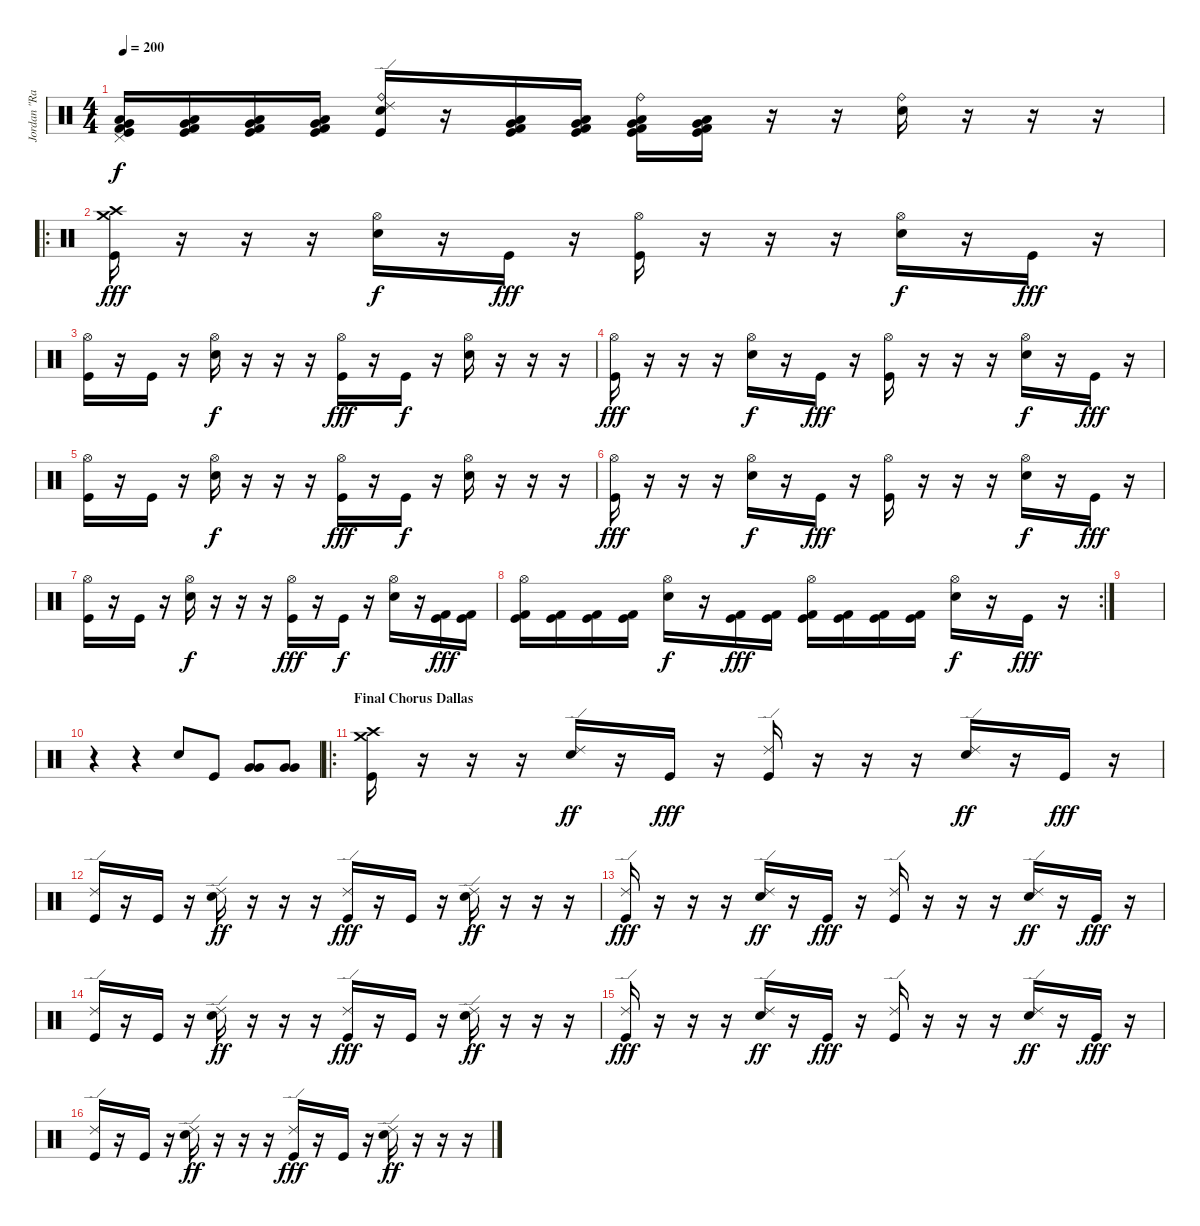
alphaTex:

\track ("Jordan \"Ratbeard\" Hastings" "Jordan \"Ra") {instrument percussion}
\staff {score}
\articulation defaults
\ts (4 4)
\tempo 200
\clef neutral
\ks c
("Pedal Hi-Hat (hit)" "Low Tom (hit)" "Kick (hit) 2" "Very Low Tom (hit)" "Kick (hit)").16{dy f} ("Low Tom (hit)" "Kick (hit) 2" "Very Low Tom (hit)" "Kick (hit)").16 ("Low Tom (hit)" "Kick (hit) 2" "Very Low Tom (hit)" "Kick (hit)").16 ("Low Tom (hit)" "Kick (hit) 2" "Very Low Tom (hit)" "Kick (hit)").16 ("Ride (edge) 2" "Ride (bell)" "Electric Snare (hit)" "Kick (hit)").16 r.16 ("Low Tom (hit)" "Kick (hit) 2" "Very Low Tom (hit)" "Kick (hit)").16 ("Low Tom (hit)" "Kick (hit) 2" "Very Low Tom (hit)" "Kick (hit)").16 ("Ride (bell)" "Low Tom (hit)" "Kick (hit) 2" "Very Low Tom (hit)" "Kick (hit)").16 ("Low Tom (hit)" "Kick (hit) 2" "Very Low Tom (hit)" "Kick (hit)").16 r.16 r.16 ("Ride (bell)" "Electric Snare (hit)").16 r.16 r.16 r.16 |
\ro
("Crash medium (hit)" "Crash high (hit)" "Kick (hit)").16{dy fff} r.16 r.16 r.16 ("Hi-Hat (open)" "Electric Snare (hit)").16{dy f} r.16 "Kick (hit)".16{dy fff} r.16 ("Hi-Hat (open)" "Kick (hit)").16 r.16 r.16 r.16 ("Hi-Hat (open)" "Electric Snare (hit)").16{dy f} r.16 "Kick (hit)".16{dy fff} r.16 |
("Hi-Hat (open)" "Kick (hit)").16 r.16 "Kick (hit)".16 r.16 ("Hi-Hat (open)" "Electric Snare (hit)").16{dy f} r.16 r.16 r.16 ("Hi-Hat (open)" "Kick (hit)").16{dy fff} r.16 "Kick (hit)".16{dy f} r.16 ("Hi-Hat (open)" "Electric Snare (hit)").16 r.16 r.16 r.16 |
("Hi-Hat (open)" "Kick (hit)").16{dy fff} r.16 r.16 r.16 ("Hi-Hat (open)" "Electric Snare (hit)").16{dy f} r.16 "Kick (hit)".16{dy fff} r.16 ("Hi-Hat (open)" "Kick (hit)").16 r.16 r.16 r.16 ("Hi-Hat (open)" "Electric Snare (hit)").16{dy f} r.16 "Kick (hit)".16{dy fff} r.16 |
("Hi-Hat (open)" "Kick (hit)").16 r.16 "Kick (hit)".16 r.16 ("Hi-Hat (open)" "Electric Snare (hit)").16{dy f} r.16 r.16 r.16 ("Hi-Hat (open)" "Kick (hit)").16{dy fff} r.16 "Kick (hit)".16{dy f} r.16 ("Hi-Hat (open)" "Electric Snare (hit)").16 r.16 r.16 r.16 |
("Hi-Hat (open)" "Kick (hit)").16{dy fff} r.16 r.16 r.16 ("Hi-Hat (open)" "Electric Snare (hit)").16{dy f} r.16 "Kick (hit)".16{dy fff} r.16 ("Hi-Hat (open)" "Kick (hit)").16 r.16 r.16 r.16 ("Hi-Hat (open)" "Electric Snare (hit)").16{dy f} r.16 "Kick (hit)".16{dy fff} r.16 |
("Hi-Hat (open)" "Kick (hit)").16 r.16 "Kick (hit)".16 r.16 ("Hi-Hat (open)" "Electric Snare (hit)").16{dy f} r.16 r.16 r.16 ("Hi-Hat (open)" "Kick (hit)").16{dy fff} r.16 "Kick (hit)".16{dy f} r.16 ("Hi-Hat (open)" "Electric Snare (hit)").16 r.16 ("Kick (hit) 2" "Kick (hit)").16{dy fff} ("Kick (hit) 2" "Kick (hit)").16 |
\rc 2
("Hi-Hat (open)" "Kick (hit) 2" "Kick (hit)").16 ("Kick (hit) 2" "Kick (hit)").16 ("Kick (hit) 2" "Kick (hit)").16 ("Kick (hit) 2" "Kick (hit)").16 ("Hi-Hat (open)" "Electric Snare (hit)").16{dy f} r.16 ("Kick (hit) 2" "Kick (hit)").16{dy fff} ("Kick (hit) 2" "Kick (hit)").16 ("Hi-Hat (open)" "Kick (hit) 2" "Kick (hit)").16 ("Kick (hit) 2" "Kick (hit)").16 ("Kick (hit) 2" "Kick (hit)").16 ("Kick (hit) 2" "Kick (hit)").16 ("Hi-Hat (open)" "Electric Snare (hit)").16{dy f} r.16 "Kick (hit)".16{dy fff} r.16 |
|
r.4 r.4 "Electric Snare (hit)".8 "Kick (hit)".8 ("Very Low Tom (hit)" "Very Low Tom (hit)").8 ("Very Low Tom (hit)" "Very Low Tom (hit)").8 |
\ro
\section ("" "Final Chorus Dallas")
("Crash high (hit)" "Crash medium (hit)" "Kick (hit)").16 r.16 r.16 r.16 ("Ride (edge) 2" "Electric Snare (hit)").16{dy ff} r.16 "Kick (hit)".16{dy fff} r.16 ("Ride (edge) 2" "Kick (hit)").16 r.16 r.16 r.16 ("Ride (edge) 2" "Electric Snare (hit)").16{dy ff} r.16 "Kick (hit)".16{dy fff} r.16 |
("Ride (edge) 2" "Kick (hit)").16 r.16 "Kick (hit)".16 r.16 ("Ride (edge) 2" "Electric Snare (hit)").16{dy ff} r.16 r.16 r.16 ("Ride (edge) 2" "Kick (hit)").16{dy fff} r.16 "Kick (hit)".16 r.16 ("Ride (edge) 2" "Electric Snare (hit)").16{dy ff} r.16 r.16 r.16 |
("Ride (edge) 2" "Kick (hit)").16{dy fff} r.16 r.16 r.16 ("Ride (edge) 2" "Electric Snare (hit)").16{dy ff} r.16 "Kick (hit)".16{dy fff} r.16 ("Ride (edge) 2" "Kick (hit)").16 r.16 r.16 r.16 ("Ride (edge) 2" "Electric Snare (hit)").16{dy ff} r.16 "Kick (hit)".16{dy fff} r.16 |
("Ride (edge) 2" "Kick (hit)").16 r.16 "Kick (hit)".16 r.16 ("Ride (edge) 2" "Electric Snare (hit)").16{dy ff} r.16 r.16 r.16 ("Ride (edge) 2" "Kick (hit)").16{dy fff} r.16 "Kick (hit)".16 r.16 ("Ride (edge) 2" "Electric Snare (hit)").16{dy ff} r.16 r.16 r.16 |
("Ride (edge) 2" "Kick (hit)").16{dy fff} r.16 r.16 r.16 ("Ride (edge) 2" "Electric Snare (hit)").16{dy ff} r.16 "Kick (hit)".16{dy fff} r.16 ("Ride (edge) 2" "Kick (hit)").16 r.16 r.16 r.16 ("Ride (edge) 2" "Electric Snare (hit)").16{dy ff} r.16 "Kick (hit)".16{dy fff} r.16 |
("Ride (edge) 2" "Kick (hit)").16 r.16 "Kick (hit)".16 r.16 ("Ride (edge) 2" "Electric Snare (hit)").16{dy ff} r.16 r.16 r.16 ("Ride (edge) 2" "Kick (hit)").16{dy fff} r.16 "Kick (hit)".16 r.16 ("Ride (edge) 2" "Electric Snare (hit)").16{dy ff} r.16 r.16 r.16
